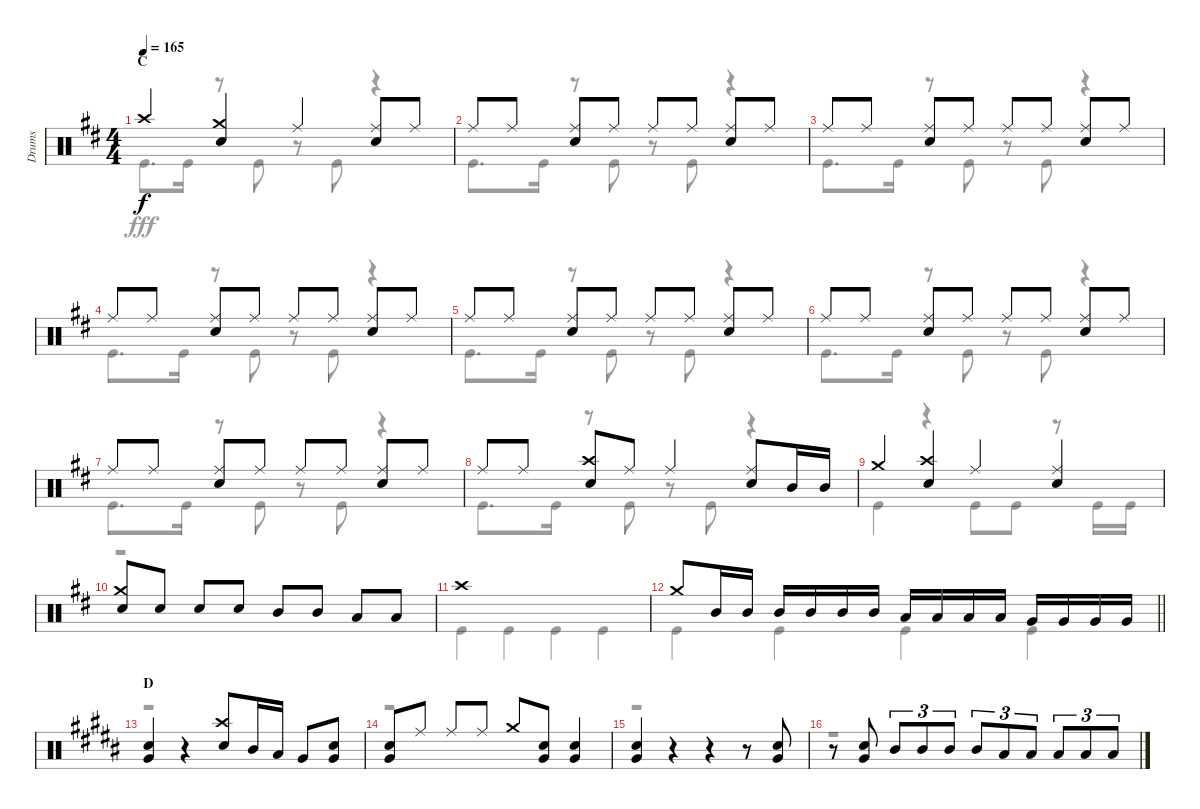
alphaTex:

\track ("Drums" "Drums") {instrument percussion}
\staff {score}
\articulation defaults
\voice
\ts (4 4)
\section ("" "C")
\tempo 165
\clef neutral
\ks d "Crash high (hit)".4{dy f}
("Crash medium (hit)" "Snare (hit) 2").4 "Ride (middle)".4 ("Ride (middle)" "Snare (hit) 2").8 "Ride (middle)".8 |
"Ride (middle)".8 "Ride (middle)".8 ("Ride (middle)" "Snare (hit) 2").8 "Ride (middle)".8 "Ride (middle)".8 "Ride (middle)".8 ("Ride (middle)" "Snare (hit) 2").8 "Ride (middle)".8 |
"Ride (middle)".8 "Ride (middle)".8 ("Ride (middle)" "Snare (hit) 2").8 "Ride (middle)".8 "Ride (middle)".8 "Ride (middle)".8 ("Ride (middle)" "Snare (hit) 2").8 "Ride (middle)".8 |
"Ride (middle)".8 "Ride (middle)".8 ("Ride (middle)" "Snare (hit) 2").8 "Ride (middle)".8 "Ride (middle)".8 "Ride (middle)".8 ("Ride (middle)" "Snare (hit) 2").8 "Ride (middle)".8 |
"Ride (middle)".8 "Ride (middle)".8 ("Ride (middle)" "Snare (hit) 2").8 "Ride (middle)".8 "Ride (middle)".8 "Ride (middle)".8 ("Ride (middle)" "Snare (hit) 2").8 "Ride (middle)".8 |
"Ride (middle)".8 "Ride (middle)".8 ("Ride (middle)" "Snare (hit) 2").8 "Ride (middle)".8 "Ride (middle)".8 "Ride (middle)".8 ("Ride (middle)" "Snare (hit) 2").8 "Ride (middle)".8 |
"Ride (middle)".8 "Ride (middle)".8 ("Ride (middle)" "Snare (hit) 2").8 "Ride (middle)".8 "Ride (middle)".8 "Ride (middle)".8 ("Ride (middle)" "Snare (hit) 2").8 "Ride (middle)".8 |
"Ride (middle)".8 "Ride (middle)".8 ("Crash high (hit)" "Snare (hit) 2").8 "Ride (middle)".8 "Ride (middle)".4 ("Ride (middle)" "Snare (hit) 2").8 "Mid Tom (hit)".16 "Mid Tom (hit)".16 |
"Crash medium (hit)".4 ("Crash high (hit)" "Snare (hit) 2").4 "Ride (middle)".4 ("Ride (middle)" "Snare (hit) 2").4 |
("Crash medium (hit)" "Snare (hit) 2").8 "Snare (hit) 2".8 "Snare (hit) 2".8 "Snare (hit) 2".8 "Mid Tom (hit)".8 "Mid Tom (hit)".8 "Low Tom (hit)".8 "Low Tom (hit)".8 |
"Crash high (hit)".1 |
\barLineRight lightlight "Crash medium (hit)".8 "Mid Tom (hit)".16 "Mid Tom (hit)".16 "Mid Tom (hit)".16 "Mid Tom (hit)".16 "Mid Tom (hit)".16 "Mid Tom (hit)".16 "Low Tom (hit)".16 "Low Tom (hit)".16 "Low Tom (hit)".16 "Low Tom (hit)".16 "Very Low Tom (hit)".16 "Very Low Tom (hit)".16 "Very Low Tom (hit)".16 "Very Low Tom (hit)".16
|
\section ("" "D")
\ks b
("Snare (hit) 2" "Very Low Tom (hit)").4 r.4 ("Crash high (hit)" "Snare (hit) 2").8 "Mid Tom (hit)".16 "Low Tom (hit)".16 "Very Low Tom (hit)".8 ("Snare (hit) 2" "Very Low Tom (hit)").8 |
("Snare (hit) 2" "Very Low Tom (hit)").8 "Ride (middle)".8 "Ride (middle)".8 "Ride (middle)".8 "Crash medium (hit)".8 ("Snare (hit) 2" "Very Low Tom (hit)").8 ("Snare (hit) 2" "Very Low Tom (hit)").4 |
("Snare (hit) 2" "Very Low Tom (hit)").4 r.4 r.4 r.8 ("Snare (hit) 2" "Very Low Tom (hit)").8 |
r.8 ("Snare (hit) 2" "Very Low Tom (hit)").8 "Mid Tom (hit)".8{tu (3 2)} "Mid Tom (hit)".8{tu (3 2)} "Mid Tom (hit)".8{tu (3 2)} "Mid Tom (hit)".8{tu (3 2)} "Low Tom (hit)".8{tu (3 2)} "Low Tom (hit)".8{tu (3 2)} "Low Tom (hit)".8{tu (3 2)} "Low Tom (hit)".8{tu (3 2)} "Low Tom (hit)".8{tu (3 2)}
\voice
\clef neutral
\ottava regular
\simile none
\ks d "Kick (hit)".8{d dy fff} "Kick (hit)".16
r.8 "Kick (hit)".8 r.8 "Kick (hit)".8 r.4 |
"Kick (hit)".8{d} "Kick (hit)".16 r.8 "Kick (hit)".8 r.8 "Kick (hit)".8 r.4 |
"Kick (hit)".8{d} "Kick (hit)".16 r.8 "Kick (hit)".8 r.8 "Kick (hit)".8 r.4 |
"Kick (hit)".8{d} "Kick (hit)".16 r.8 "Kick (hit)".8 r.8 "Kick (hit)".8 r.4 |
"Kick (hit)".8{d} "Kick (hit)".16 r.8 "Kick (hit)".8 r.8 "Kick (hit)".8 r.4 |
"Kick (hit)".8{d} "Kick (hit)".16 r.8 "Kick (hit)".8 r.8 "Kick (hit)".8 r.4 |
"Kick (hit)".8{d} "Kick (hit)".16 r.8 "Kick (hit)".8 r.8 "Kick (hit)".8 r.4 |
"Kick (hit)".8{d} "Kick (hit)".16 r.8 "Kick (hit)".8 r.8 "Kick (hit)".8 r.4 |
"Kick (hit)".4 r.4 "Kick (hit)".8 "Kick (hit)".8 r.8 "Kick (hit)".16 "Kick (hit)".16 |
r.1 |
"Kick (hit)".4 "Kick (hit)".4 "Kick (hit)".4 "Kick (hit)".4 |
\barLineRight lightlight "Kick (hit)".4 "Kick (hit)".4 "Kick (hit)".4 "Kick (hit)".4
|
\ks b
r.1 |
r.1 |
r.1 |
r.1
